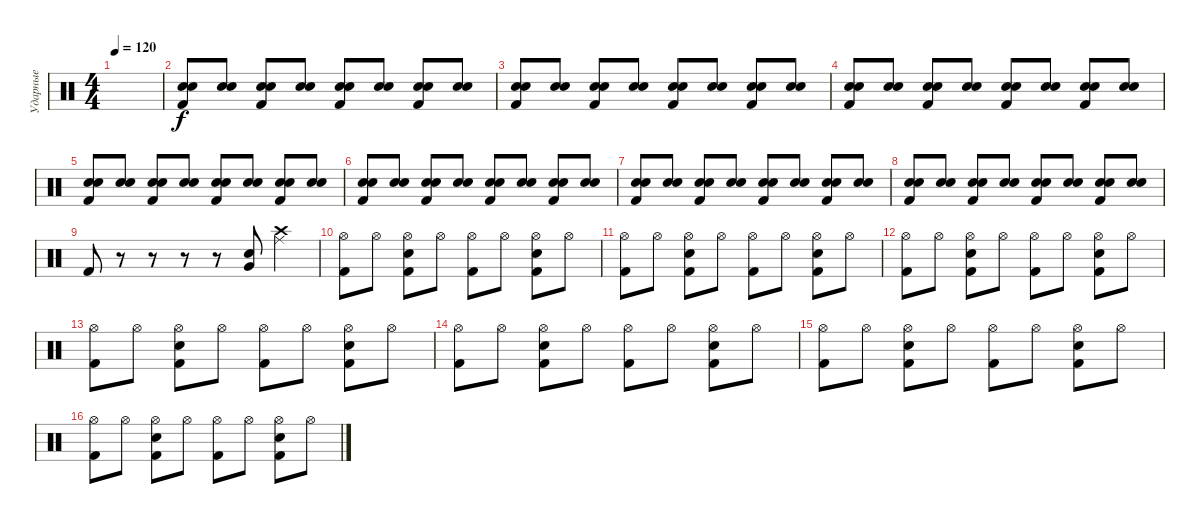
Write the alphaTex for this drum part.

\track ("Ударные" "Ударные") {instrument percussion}
\staff {score}
\articulation defaults
\ts (4 4)
\tempo 120
\clef neutral
\ks c
|
("Snare (hit) 2" "Snare (hit) 2" "Kick (hit) 2").8 ("Snare (hit) 2" "Snare (hit) 2").8 ("Snare (hit) 2" "Snare (hit) 2" "Kick (hit) 2").8 ("Snare (hit) 2" "Snare (hit) 2").8 ("Snare (hit) 2" "Snare (hit) 2" "Kick (hit) 2").8 ("Snare (hit) 2" "Snare (hit) 2").8 ("Snare (hit) 2" "Snare (hit) 2" "Kick (hit) 2").8 ("Snare (hit) 2" "Snare (hit) 2").8 |
("Snare (hit) 2" "Snare (hit) 2" "Kick (hit) 2").8 ("Snare (hit) 2" "Snare (hit) 2").8 ("Snare (hit) 2" "Snare (hit) 2" "Kick (hit) 2").8 ("Snare (hit) 2" "Snare (hit) 2").8 ("Snare (hit) 2" "Snare (hit) 2" "Kick (hit) 2").8 ("Snare (hit) 2" "Snare (hit) 2").8 ("Snare (hit) 2" "Snare (hit) 2" "Kick (hit) 2").8 ("Snare (hit) 2" "Snare (hit) 2").8 |
("Snare (hit) 2" "Snare (hit) 2" "Kick (hit) 2").8 ("Snare (hit) 2" "Snare (hit) 2").8 ("Snare (hit) 2" "Snare (hit) 2" "Kick (hit) 2").8 ("Snare (hit) 2" "Snare (hit) 2").8 ("Snare (hit) 2" "Snare (hit) 2" "Kick (hit) 2").8 ("Snare (hit) 2" "Snare (hit) 2").8 ("Snare (hit) 2" "Snare (hit) 2" "Kick (hit) 2").8 ("Snare (hit) 2" "Snare (hit) 2").8 |
("Snare (hit) 2" "Snare (hit) 2" "Kick (hit) 2").8 ("Snare (hit) 2" "Snare (hit) 2").8 ("Snare (hit) 2" "Snare (hit) 2" "Kick (hit) 2").8 ("Snare (hit) 2" "Snare (hit) 2").8 ("Snare (hit) 2" "Snare (hit) 2" "Kick (hit) 2").8 ("Snare (hit) 2" "Snare (hit) 2").8 ("Snare (hit) 2" "Snare (hit) 2" "Kick (hit) 2").8 ("Snare (hit) 2" "Snare (hit) 2").8 |
("Snare (hit) 2" "Snare (hit) 2" "Kick (hit) 2").8 ("Snare (hit) 2" "Snare (hit) 2").8 ("Snare (hit) 2" "Snare (hit) 2" "Kick (hit) 2").8 ("Snare (hit) 2" "Snare (hit) 2").8 ("Snare (hit) 2" "Snare (hit) 2" "Kick (hit) 2").8 ("Snare (hit) 2" "Snare (hit) 2").8 ("Snare (hit) 2" "Snare (hit) 2" "Kick (hit) 2").8 ("Snare (hit) 2" "Snare (hit) 2").8 |
("Snare (hit) 2" "Snare (hit) 2" "Kick (hit) 2").8 ("Snare (hit) 2" "Snare (hit) 2").8 ("Snare (hit) 2" "Snare (hit) 2" "Kick (hit) 2").8 ("Snare (hit) 2" "Snare (hit) 2").8 ("Snare (hit) 2" "Snare (hit) 2" "Kick (hit) 2").8 ("Snare (hit) 2" "Snare (hit) 2").8 ("Snare (hit) 2" "Snare (hit) 2" "Kick (hit) 2").8 ("Snare (hit) 2" "Snare (hit) 2").8 |
("Snare (hit) 2" "Snare (hit) 2" "Kick (hit) 2").8 ("Snare (hit) 2" "Snare (hit) 2").8 ("Snare (hit) 2" "Snare (hit) 2" "Kick (hit) 2").8 ("Snare (hit) 2" "Snare (hit) 2").8 ("Snare (hit) 2" "Snare (hit) 2" "Kick (hit) 2").8 ("Snare (hit) 2" "Snare (hit) 2").8 ("Snare (hit) 2" "Snare (hit) 2" "Kick (hit) 2").8 ("Snare (hit) 2" "Snare (hit) 2").8 |
"Kick (hit) 2".8 r.8 r.8 r.8 r.8 ("Snare (hit) 2" "Very Low Tom (hit)").8 ("Ride (middle)" "Crash high (hit)").4 |
("Hi-Hat (open)" "Kick (hit) 2").8 "Hi-Hat (open)".8 ("Hi-Hat (open)" "Kick (hit) 2" "Snare (hit) 2").8 "Hi-Hat (open)".8 ("Hi-Hat (open)" "Kick (hit) 2").8 "Hi-Hat (open)".8 ("Hi-Hat (open)" "Kick (hit) 2" "Snare (hit) 2").8 "Hi-Hat (open)".8 |
("Hi-Hat (open)" "Kick (hit) 2").8 "Hi-Hat (open)".8 ("Hi-Hat (open)" "Kick (hit) 2" "Snare (hit) 2").8 "Hi-Hat (open)".8 ("Hi-Hat (open)" "Kick (hit) 2").8 "Hi-Hat (open)".8 ("Hi-Hat (open)" "Kick (hit) 2" "Snare (hit) 2").8 "Hi-Hat (open)".8 |
("Hi-Hat (open)" "Kick (hit) 2").8 "Hi-Hat (open)".8 ("Hi-Hat (open)" "Kick (hit) 2" "Snare (hit) 2").8 "Hi-Hat (open)".8 ("Hi-Hat (open)" "Kick (hit) 2").8 "Hi-Hat (open)".8 ("Hi-Hat (open)" "Kick (hit) 2" "Snare (hit) 2").8 "Hi-Hat (open)".8 |
("Hi-Hat (open)" "Kick (hit) 2").8 "Hi-Hat (open)".8 ("Hi-Hat (open)" "Kick (hit) 2" "Snare (hit) 2").8 "Hi-Hat (open)".8 ("Hi-Hat (open)" "Kick (hit) 2").8 "Hi-Hat (open)".8 ("Hi-Hat (open)" "Kick (hit) 2" "Snare (hit) 2").8 "Hi-Hat (open)".8 |
("Hi-Hat (open)" "Kick (hit) 2").8 "Hi-Hat (open)".8 ("Hi-Hat (open)" "Kick (hit) 2" "Snare (hit) 2").8 "Hi-Hat (open)".8 ("Hi-Hat (open)" "Kick (hit) 2").8 "Hi-Hat (open)".8 ("Hi-Hat (open)" "Kick (hit) 2" "Snare (hit) 2").8 "Hi-Hat (open)".8 |
("Hi-Hat (open)" "Kick (hit) 2").8 "Hi-Hat (open)".8 ("Hi-Hat (open)" "Kick (hit) 2" "Snare (hit) 2").8 "Hi-Hat (open)".8 ("Hi-Hat (open)" "Kick (hit) 2").8 "Hi-Hat (open)".8 ("Hi-Hat (open)" "Kick (hit) 2" "Snare (hit) 2").8 "Hi-Hat (open)".8 |
("Hi-Hat (open)" "Kick (hit) 2").8 "Hi-Hat (open)".8 ("Hi-Hat (open)" "Kick (hit) 2" "Snare (hit) 2").8 "Hi-Hat (open)".8 ("Hi-Hat (open)" "Kick (hit) 2").8 "Hi-Hat (open)".8 ("Hi-Hat (open)" "Kick (hit) 2" "Snare (hit) 2").8 "Hi-Hat (open)".8
